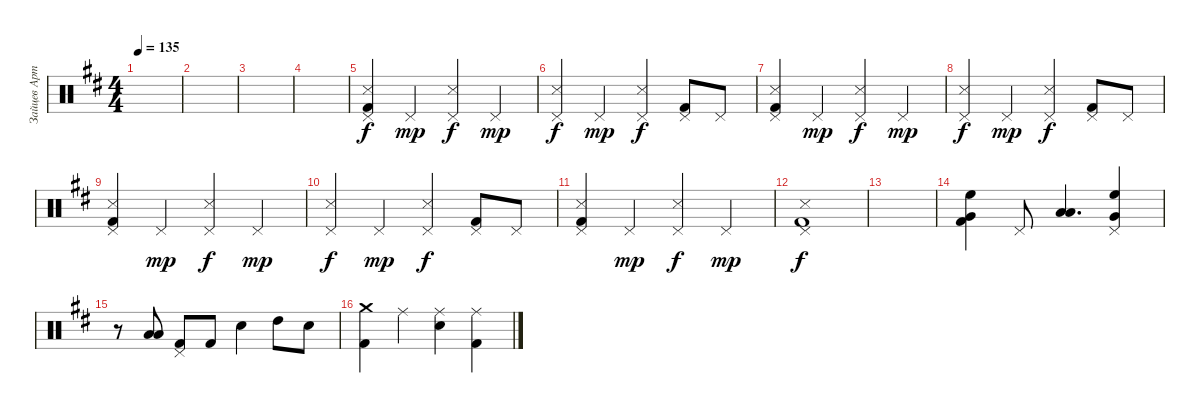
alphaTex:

\track ("Зайцев Артём" "Зайцев Арт") {instrument percussion}
\staff {score}
\articulation defaults
\ts (4 4)
\tempo 135
\clef neutral
\ks d
|
|
|
|
("Kick (hit) 2" "Snare (side stick) 3" "Pedal Hi-Hat (hit)").4 "Pedal Hi-Hat (hit)".4{dy mp} ("Pedal Hi-Hat (hit)" "Snare (side stick) 3").4{dy f} "Pedal Hi-Hat (hit)".4{dy mp} |
("Pedal Hi-Hat (hit)" "Snare (side stick) 3").4{dy f} "Pedal Hi-Hat (hit)".4{dy mp} ("Pedal Hi-Hat (hit)" "Snare (side stick) 3").4{dy f} ("Pedal Hi-Hat (hit)" "Kick (hit) 2").8 "Pedal Hi-Hat (hit)".8 |
("Kick (hit) 2" "Snare (side stick) 3" "Pedal Hi-Hat (hit)").4 "Pedal Hi-Hat (hit)".4{dy mp} ("Pedal Hi-Hat (hit)" "Snare (side stick) 3").4{dy f} "Pedal Hi-Hat (hit)".4{dy mp} |
("Pedal Hi-Hat (hit)" "Snare (side stick) 3").4{dy f} "Pedal Hi-Hat (hit)".4{dy mp} ("Pedal Hi-Hat (hit)" "Snare (side stick) 3").4{dy f} ("Pedal Hi-Hat (hit)" "Kick (hit) 2").8 "Pedal Hi-Hat (hit)".8 |
("Kick (hit) 2" "Snare (side stick) 3" "Pedal Hi-Hat (hit)").4 "Pedal Hi-Hat (hit)".4{dy mp} ("Pedal Hi-Hat (hit)" "Snare (side stick) 3").4{dy f} "Pedal Hi-Hat (hit)".4{dy mp} |
("Pedal Hi-Hat (hit)" "Snare (side stick) 3").4{dy f} "Pedal Hi-Hat (hit)".4{dy mp} ("Pedal Hi-Hat (hit)" "Snare (side stick) 3").4{dy f} ("Pedal Hi-Hat (hit)" "Kick (hit) 2").8 "Pedal Hi-Hat (hit)".8 |
("Kick (hit) 2" "Snare (side stick) 3" "Pedal Hi-Hat (hit)").4 "Pedal Hi-Hat (hit)".4{dy mp} ("Pedal Hi-Hat (hit)" "Snare (side stick) 3").4{dy f} "Pedal Hi-Hat (hit)".4{dy mp} |
("Kick (hit) 2" "Snare (side stick) 3" "Pedal Hi-Hat (hit)").1{dy f} |
|
("Kick (hit) 2" "Very Low Tom (hit)" "High Floor Tom (hit)").4 "Pedal Hi-Hat (hit)".8 ("Low Floor Tom (hit)" "Low Tom (hit)").4{d} ("Very Low Tom (hit)" "High Floor Tom (hit)" "Pedal Hi-Hat (hit)").4 |
r.8 ("Low Floor Tom (hit)" "Low Tom (hit)").8 ("Pedal Hi-Hat (hit)" "Kick (hit) 2").8 "Kick (hit) 2".8 "Snare (hit) 2".4 "High Tom (hit)".8 "Snare (hit) 2".8 |
("Kick (hit) 2" "Crash medium (hit)").4 "Ride (middle)".4 ("Ride (middle)" "Snare (hit) 2").4 ("Ride (middle)" "Kick (hit) 2").4
